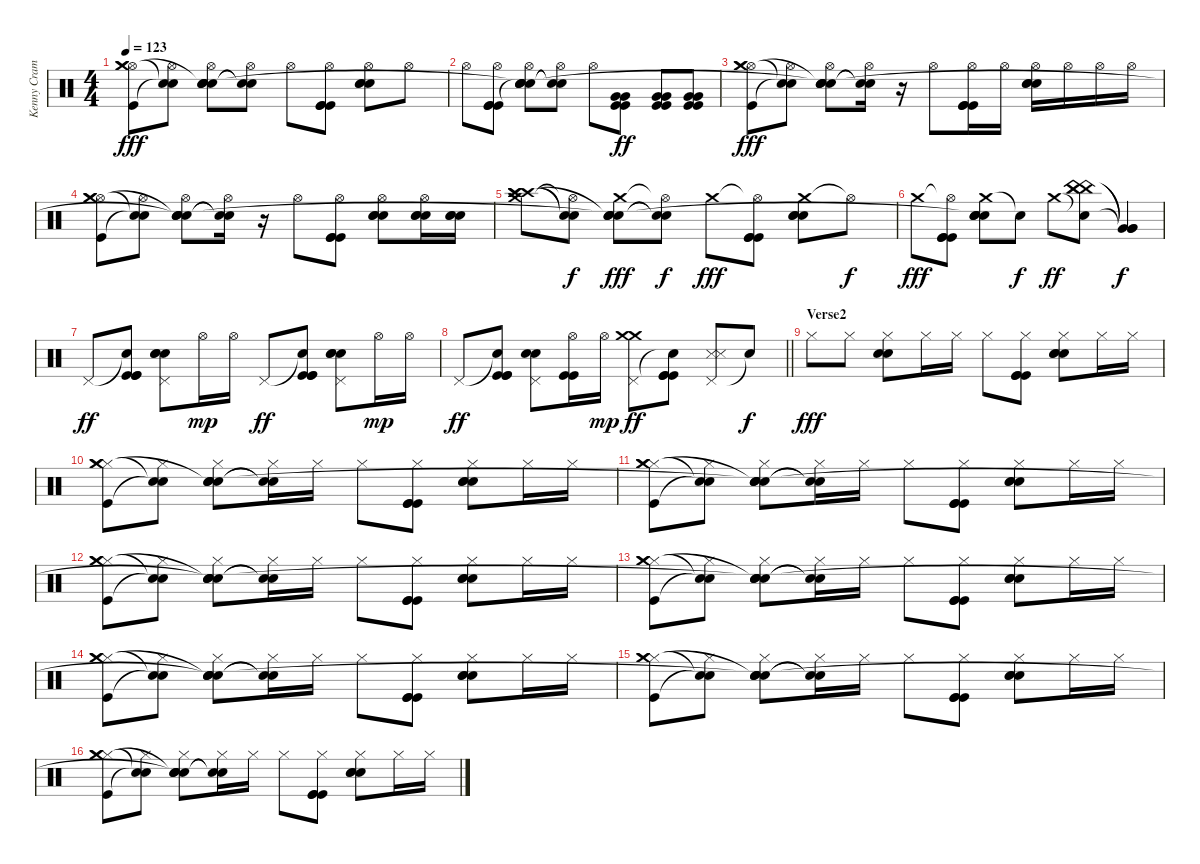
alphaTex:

\track ("Kenny Cramme - Drums" "Kenny Cram") {instrument percussion}
\staff {score}
\articulation defaults
\ts (4 4)
\tempo 123
\clef neutral
\ks c
("Hi-Hat (open)" "Kick (hit)" "Crash medium (hit)" "Crash medium (hit)").8{dy fff} ("Hi-Hat (open)" "Snare (hit)"{t} "Snare (hit)"{t}).8 ("Hi-Hat (open)" "Snare (hit) 2" "Snare (hit) 2" "Snare (hit) 2"{t} "Snare (hit)"{t}).8 ("Hi-Hat (open)" "Snare (hit)"{t} "Snare (hit)"{t}).8 "Hi-Hat (open)".8 ("Hi-Hat (open)" "Kick (hit)" "Kick (hit)" "Kick (hit)").8 ("Hi-Hat (open)" "Snare (hit) 2" "Snare (hit) 2" "Snare (hit) 2").8 "Hi-Hat (open)".8 |
"Hi-Hat (open)".8 ("Hi-Hat (open)" "Kick (hit)" "Kick (hit)" "Kick (hit)").8 ("Hi-Hat (open)" "Snare (hit) 2" "Snare (hit) 2" "Snare (hit) 2"{t} "Snare (hit)"{t}).8 ("Hi-Hat (open)" "Snare (hit)"{t} "Snare (hit)"{t}).8 "Hi-Hat (open)".8 ("Kick (hit)" "Kick (hit)" "Very Low Tom (hit)" "Very Low Tom (hit)").8{dy ff} ("Kick (hit)" "Kick (hit)" "Very Low Tom (hit)" "Very Low Tom (hit)").8 ("Kick (hit)" "Kick (hit)" "Very Low Tom (hit)" "Very Low Tom (hit)").8 |
("Hi-Hat (open)" "Kick (hit)" "Crash medium (hit)" "Crash medium (hit)").8{dy fff} ("Hi-Hat (open)" "Snare (hit)"{t} "Snare (hit)"{t}).8 ("Hi-Hat (open)" "Snare (hit) 2" "Snare (hit) 2" "Snare (hit) 2"{t} "Snare (hit)"{t}).8 ("Hi-Hat (open)" "Snare (hit)"{t} "Snare (hit)"{t}).16 r.16 "Hi-Hat (open)".8 ("Hi-Hat (open)" "Kick (hit)" "Kick (hit)" "Kick (hit)").16 "Hi-Hat (open)".16 ("Hi-Hat (open)" "Snare (hit) 2" "Snare (hit) 2" "Snare (hit) 2").16 "Hi-Hat (open)".16 "Hi-Hat (open)".16 "Hi-Hat (open)".16 |
("Hi-Hat (open)" "Kick (hit)" "Crash medium (hit)" "Crash medium (hit)").8 ("Hi-Hat (open)" "Snare (hit)"{t} "Snare (hit)"{t}).8 ("Hi-Hat (open)" "Snare (hit) 2" "Snare (hit) 2" "Snare (hit) 2"{t} "Snare (hit)"{t}).8 ("Hi-Hat (open)" "Snare (hit)"{t} "Snare (hit)"{t}).16 r.16 "Hi-Hat (open)".8 ("Hi-Hat (open)" "Kick (hit)" "Kick (hit)" "Kick (hit)").8 ("Hi-Hat (open)" "Snare (hit) 2" "Snare (hit) 2" "Snare (hit) 2").8 ("Hi-Hat (open)" "Snare (hit) 2" "Snare (hit) 2" "Snare (hit) 2").16 ("Snare (hit) 2" "Snare (hit) 2" "Snare (hit) 2").16 |
("Crash medium (hit)" "Crash high (hit)" "Crash high (hit)" "Crash high (hit)").8 ("Hi-Hat (open)"{t} "Snare (hit)"{t} "Snare (hit)"{t}).8{dy f} ("Crash medium (hit)" "Snare (hit) 2" "Snare (hit) 2" "Snare (hit) 2"{t} "Snare (hit)"{t}).8{dy fff} ("Hi-Hat (open)"{t} "Snare (hit)"{t} "Snare (hit)"{t}).8{dy f} "Crash medium (hit)".8{dy fff} ("Hi-Hat (open)"{t} "Kick (hit)" "Kick (hit)" "Kick (hit)").8 ("Crash medium (hit)" "Snare (hit) 2" "Snare (hit) 2" "Snare (hit) 2").8 "Hi-Hat (open)"{t}.8{dy f} |
"Crash medium (hit)".8{dy fff} ("Hi-Hat (open)"{t} "Kick (hit)" "Kick (hit)" "Kick (hit)").8 ("Crash medium (hit)" "Snare (hit) 2" "Snare (hit) 2" "Snare (hit) 2" "Snare (hit)"{t}).8 "Snare (hit)"{t}.8{dy f} "Crash medium (hit)".8{dy ff} ("Snare (hit)"{t} "China (hit)" "China (hit)" "China (hit)").8 ("Very Low Tom (hit)"{t} "Very Low Tom (hit)"{t} "Very Low Tom (hit)"{t}).4{dy f} |
"Pedal Hi-Hat (hit)".8{dy ff} ("Snare (hit)"{t} "Kick (hit)" "Kick (hit)" "Kick (hit)").8 ("Pedal Hi-Hat (hit)" "Snare (hit) 2" "Snare (hit) 2" "Snare (hit) 2").8 "Hi-Hat (open)".16{dy mp} "Hi-Hat (open)".16 "Pedal Hi-Hat (hit)".8{dy ff} ("Snare (hit)"{t} "Kick (hit)" "Kick (hit)" "Kick (hit)").8 ("Pedal Hi-Hat (hit)" "Snare (hit) 2" "Snare (hit) 2" "Snare (hit) 2").8 "Hi-Hat (open)".16{dy mp} "Hi-Hat (open)".16 |
\barLineRight lightlight "Pedal Hi-Hat (hit)".8{dy ff}
("Snare (hit)"{t} "Kick (hit)" "Kick (hit)" "Kick (hit)").8 ("Pedal Hi-Hat (hit)" "Snare (hit) 2" "Snare (hit) 2").8 ("Hi-Hat (open)" "Kick (hit)" "Kick (hit)").16 "Hi-Hat (open)".16{dy mp} ("Pedal Hi-Hat (hit)" "Crash medium (hit)" "Crash medium (hit)").8{dy ff} ("Snare (hit)"{t} "Kick (hit)" "Kick (hit)" "Kick (hit)").8 ("Pedal Hi-Hat (hit)" "Snare (side stick) 3" "Snare (side stick) 3").8 "Snare (hit)"{t}.8{dy f} |
\section ("" "Verse2")
"Hi-Hat (closed)".8{dy fff} "Hi-Hat (closed)".8 ("Hi-Hat (closed)" "Snare (hit) 2" "Snare (hit) 2").8 "Hi-Hat (closed)".16 "Hi-Hat (closed)".16 "Hi-Hat (closed)".8 ("Hi-Hat (closed)" "Kick (hit)" "Kick (hit)" "Kick (hit)").8 ("Hi-Hat (closed)" "Snare (hit) 2" "Snare (hit) 2" "Snare (hit) 2").8 "Hi-Hat (closed)".16 "Hi-Hat (closed)".16 |
("Hi-Hat (closed)" "Kick (hit)" "Crash medium (hit)" "Crash medium (hit)").8 ("Hi-Hat (closed)" "Snare (hit)"{t} "Snare (hit)"{t}).8 ("Hi-Hat (closed)" "Snare (hit) 2" "Snare (hit) 2" "Snare (hit) 2"{t} "Snare (hit)").8 ("Hi-Hat (closed)" "Snare (hit)"{t} "Snare (hit)"{t}).16 "Hi-Hat (closed)".16 "Hi-Hat (closed)".8 ("Hi-Hat (closed)" "Kick (hit)" "Kick (hit)" "Kick (hit)").8 ("Hi-Hat (closed)" "Snare (hit) 2" "Snare (hit) 2" "Snare (hit) 2").8 "Hi-Hat (closed)".16 "Hi-Hat (closed)".16 |
("Hi-Hat (closed)" "Kick (hit)" "Crash medium (hit)" "Crash medium (hit)").8 ("Hi-Hat (closed)" "Snare (hit)"{t} "Snare (hit)"{t}).8 ("Hi-Hat (closed)" "Snare (hit) 2" "Snare (hit) 2" "Snare (hit) 2"{t} "Snare (hit)"{t}).8 ("Hi-Hat (closed)" "Snare (hit)"{t} "Snare (hit)"{t}).16 "Hi-Hat (closed)".16 "Hi-Hat (closed)".8 ("Hi-Hat (closed)" "Kick (hit)" "Kick (hit)" "Kick (hit)").8 ("Hi-Hat (closed)" "Snare (hit) 2" "Snare (hit) 2" "Snare (hit) 2").8 "Hi-Hat (closed)".16 "Hi-Hat (closed)".16 |
("Hi-Hat (closed)" "Kick (hit)" "Crash medium (hit)" "Crash medium (hit)").8 ("Hi-Hat (closed)" "Snare (hit)"{t} "Snare (hit)"{t}).8 ("Hi-Hat (closed)" "Snare (hit) 2" "Snare (hit) 2" "Snare (hit) 2"{t} "Snare (hit)"{t}).8 ("Hi-Hat (closed)" "Snare (hit)"{t} "Snare (hit)"{t}).16 "Hi-Hat (closed)".16 "Hi-Hat (closed)".8 ("Hi-Hat (closed)" "Kick (hit)" "Kick (hit)" "Kick (hit)").8 ("Hi-Hat (closed)" "Snare (hit) 2" "Snare (hit) 2" "Snare (hit) 2").8 "Hi-Hat (closed)".16 "Hi-Hat (closed)".16 |
("Hi-Hat (closed)" "Kick (hit)" "Crash medium (hit)" "Crash medium (hit)").8 ("Hi-Hat (closed)" "Snare (hit)"{t} "Snare (hit)"{t}).8 ("Hi-Hat (closed)" "Snare (hit) 2" "Snare (hit) 2" "Snare (hit) 2"{t} "Snare (hit)"{t}).8 ("Hi-Hat (closed)" "Snare (hit)"{t} "Snare (hit)"{t}).16 "Hi-Hat (closed)".16 "Hi-Hat (closed)".8 ("Hi-Hat (closed)" "Kick (hit)" "Kick (hit)" "Kick (hit)").8 ("Hi-Hat (closed)" "Snare (hit) 2" "Snare (hit) 2" "Snare (hit) 2").8 "Hi-Hat (closed)".16 "Hi-Hat (closed)".16 |
("Hi-Hat (closed)" "Kick (hit)" "Crash medium (hit)" "Crash medium (hit)").8 ("Hi-Hat (closed)" "Snare (hit)"{t} "Snare (hit)"{t}).8 ("Hi-Hat (closed)" "Snare (hit) 2" "Snare (hit) 2" "Snare (hit) 2"{t} "Snare (hit)"{t}).8 ("Hi-Hat (closed)" "Snare (hit)"{t} "Snare (hit)"{t}).16 "Hi-Hat (closed)".16 "Hi-Hat (closed)".8 ("Hi-Hat (closed)" "Kick (hit)" "Kick (hit)" "Kick (hit)").8 ("Hi-Hat (closed)" "Snare (hit) 2" "Snare (hit) 2" "Snare (hit) 2").8 "Hi-Hat (closed)".16 "Hi-Hat (closed)".16 |
("Hi-Hat (closed)" "Kick (hit)" "Crash medium (hit)" "Crash medium (hit)").8 ("Hi-Hat (closed)" "Snare (hit)"{t} "Snare (hit)"{t}).8 ("Hi-Hat (closed)" "Snare (hit) 2" "Snare (hit) 2" "Snare (hit) 2"{t} "Snare (hit)"{t}).8 ("Hi-Hat (closed)" "Snare (hit)"{t} "Snare (hit)"{t}).16 "Hi-Hat (closed)".16 "Hi-Hat (closed)".8 ("Hi-Hat (closed)" "Kick (hit)" "Kick (hit)" "Kick (hit)").8 ("Hi-Hat (closed)" "Snare (hit) 2" "Snare (hit) 2" "Snare (hit) 2").8 "Hi-Hat (closed)".16 "Hi-Hat (closed)".16 |
("Hi-Hat (closed)" "Kick (hit)" "Crash medium (hit)" "Crash medium (hit)").8 ("Hi-Hat (closed)" "Snare (hit)"{t} "Snare (hit)"{t}).8 ("Hi-Hat (closed)" "Snare (hit) 2" "Snare (hit) 2" "Snare (hit) 2"{t} "Snare (hit)"{t}).8 ("Hi-Hat (closed)" "Snare (hit)"{t} "Snare (hit)"{t}).16 "Hi-Hat (closed)".16 "Hi-Hat (closed)".8 ("Hi-Hat (closed)" "Kick (hit)" "Kick (hit)" "Kick (hit)").8 ("Hi-Hat (closed)" "Snare (hit) 2" "Snare (hit) 2" "Snare (hit) 2").8 "Hi-Hat (closed)".16 "Hi-Hat (closed)".16
